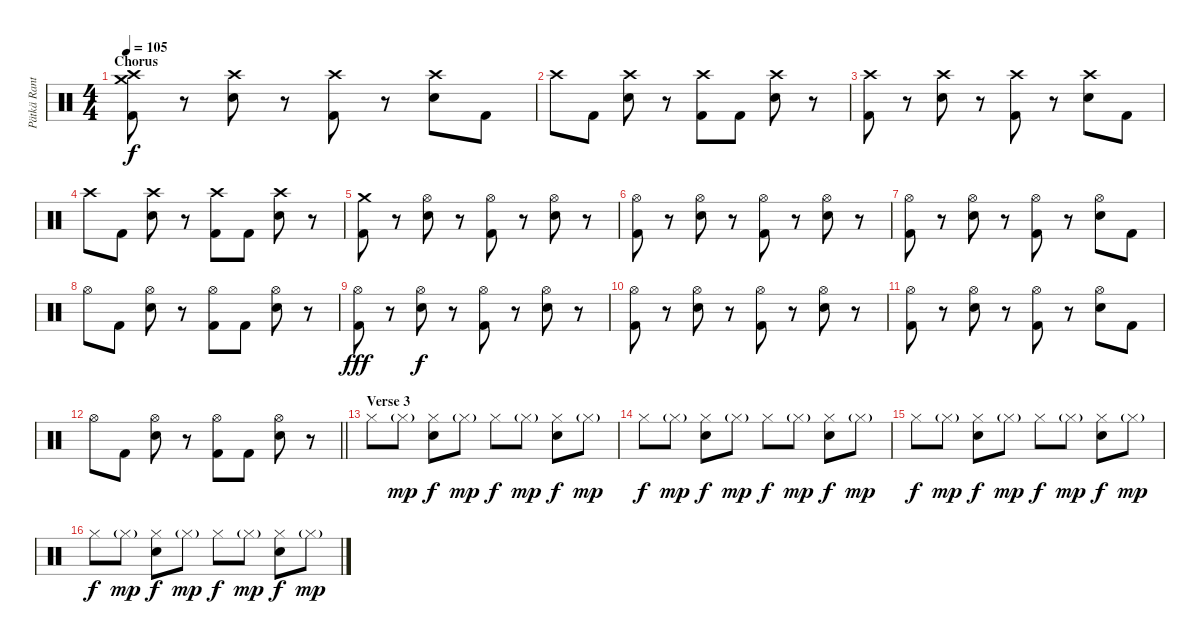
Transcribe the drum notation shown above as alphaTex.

\track ("Pätkä Rantala (Drums)" "Pätkä Rant") {instrument percussion}
\staff {score}
\articulation defaults
\ts (4 4)
\section ("" "Chorus")
\tempo 105
\clef neutral
\ks c
("Crash medium (hit)" "Crash high (hit)" "Kick (hit) 2").8{dy f} r.8 ("Crash high (hit)" "Snare (hit) 2").8 r.8 ("Crash high (hit)" "Kick (hit) 2").8 r.8 ("Crash high (hit)" "Snare (hit) 2").8 "Kick (hit) 2".8 |
"Crash high (hit)".8 "Kick (hit) 2".8 ("Crash high (hit)" "Snare (hit) 2").8 r.8 ("Crash high (hit)" "Kick (hit) 2").8 "Kick (hit) 2".8 ("Crash high (hit)" "Snare (hit) 2").8 r.8 |
("Crash high (hit)" "Kick (hit) 2").8 r.8 ("Crash high (hit)" "Snare (hit) 2").8 r.8 ("Crash high (hit)" "Kick (hit) 2").8 r.8 ("Crash high (hit)" "Snare (hit) 2").8 "Kick (hit) 2".8 |
"Crash high (hit)".8 "Kick (hit) 2".8 ("Crash high (hit)" "Snare (hit) 2").8 r.8 ("Crash high (hit)" "Kick (hit) 2").8 "Kick (hit) 2".8 ("Crash high (hit)" "Snare (hit) 2").8 r.8 |
("Crash medium (hit)" "Kick (hit) 2").8 r.8 ("Hi-Hat (open)" "Snare (hit) 2").8 r.8 ("Hi-Hat (open)" "Kick (hit) 2").8 r.8 ("Hi-Hat (open)" "Snare (hit) 2").8 r.8 |
("Hi-Hat (open)" "Kick (hit) 2").8 r.8 ("Hi-Hat (open)" "Snare (hit) 2").8 r.8 ("Hi-Hat (open)" "Kick (hit) 2").8 r.8 ("Hi-Hat (open)" "Snare (hit) 2").8 r.8 |
("Hi-Hat (open)" "Kick (hit) 2").8 r.8 ("Hi-Hat (open)" "Snare (hit) 2").8 r.8 ("Hi-Hat (open)" "Kick (hit) 2").8 r.8 ("Hi-Hat (open)" "Snare (hit) 2").8 "Kick (hit) 2".8 |
"Hi-Hat (open)".8 "Kick (hit) 2".8 ("Hi-Hat (open)" "Snare (hit) 2").8 r.8 ("Hi-Hat (open)" "Kick (hit) 2").8 "Kick (hit) 2".8 ("Hi-Hat (open)" "Snare (hit) 2").8 r.8 |
("Hi-Hat (open)" "Kick (hit) 2").8{dy fff} r.8 ("Hi-Hat (open)" "Snare (hit) 2").8{dy f} r.8 ("Hi-Hat (open)" "Kick (hit) 2").8 r.8 ("Hi-Hat (open)" "Snare (hit) 2").8 r.8 |
("Hi-Hat (open)" "Kick (hit) 2").8 r.8 ("Hi-Hat (open)" "Snare (hit) 2").8 r.8 ("Hi-Hat (open)" "Kick (hit) 2").8 r.8 ("Hi-Hat (open)" "Snare (hit) 2").8 r.8 |
("Hi-Hat (open)" "Kick (hit) 2").8 r.8 ("Hi-Hat (open)" "Snare (hit) 2").8 r.8 ("Hi-Hat (open)" "Kick (hit) 2").8 r.8 ("Hi-Hat (open)" "Snare (hit) 2").8 "Kick (hit) 2".8 |
\barLineRight lightlight "Hi-Hat (open)".8 "Kick (hit) 2".8
("Hi-Hat (open)" "Snare (hit) 2").8 r.8 ("Hi-Hat (open)" "Kick (hit) 2").8 "Kick (hit) 2".8 ("Hi-Hat (open)" "Snare (hit) 2").8 r.8 |
\section ("" "Verse 3")
"Hi-Hat (closed)".8 "Hi-Hat (closed)"{g}.8{dy mp} ("Hi-Hat (closed)" "Snare (hit) 2").8{dy f} "Hi-Hat (closed)"{g}.8{dy mp} "Hi-Hat (closed)".8{dy f} "Hi-Hat (closed)"{g}.8{dy mp} ("Hi-Hat (closed)" "Snare (hit) 2").8{dy f} "Hi-Hat (closed)"{g}.8{dy mp} |
"Hi-Hat (closed)".8{dy f} "Hi-Hat (closed)"{g}.8{dy mp} ("Hi-Hat (closed)" "Snare (hit) 2").8{dy f} "Hi-Hat (closed)"{g}.8{dy mp} "Hi-Hat (closed)".8{dy f} "Hi-Hat (closed)"{g}.8{dy mp} ("Hi-Hat (closed)" "Snare (hit) 2").8{dy f} "Hi-Hat (closed)"{g}.8{dy mp} |
"Hi-Hat (closed)".8{dy f} "Hi-Hat (closed)"{g}.8{dy mp} ("Hi-Hat (closed)" "Snare (hit) 2").8{dy f} "Hi-Hat (closed)"{g}.8{dy mp} "Hi-Hat (closed)".8{dy f} "Hi-Hat (closed)"{g}.8{dy mp} ("Hi-Hat (closed)" "Snare (hit) 2").8{dy f} "Hi-Hat (closed)"{g}.8{dy mp} |
"Hi-Hat (closed)".8{dy f} "Hi-Hat (closed)"{g}.8{dy mp} ("Hi-Hat (closed)" "Snare (hit) 2").8{dy f} "Hi-Hat (closed)"{g}.8{dy mp} "Hi-Hat (closed)".8{dy f} "Hi-Hat (closed)"{g}.8{dy mp} ("Hi-Hat (closed)" "Snare (hit) 2").8{dy f} "Hi-Hat (closed)"{g}.8{dy mp}
